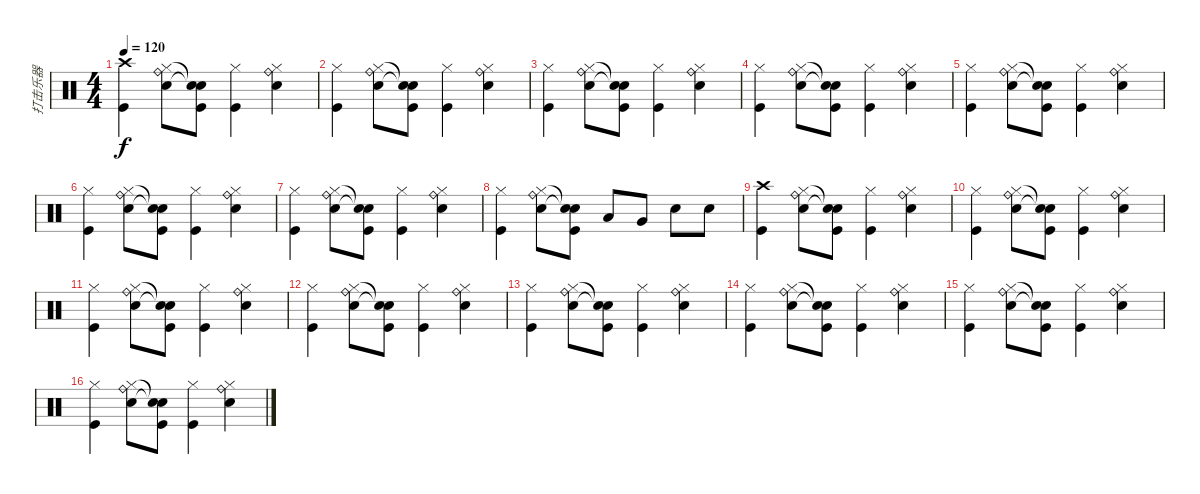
\track ("打击乐器" "打击乐器") {instrument percussion}
\staff {score}
\articulation defaults
\ts (4 4)
\tempo 120
\clef neutral
\ks c
("Crash high (hit)" "Kick (hit)").4{dy f} ("Hi-Hat (closed)" "Snare (hit) 2" "Ride (bell)").8 ("Snare (hit)"{t} "Snare (hit)"{t} "Kick (hit)").8 ("Hi-Hat (closed)" "Kick (hit)").4 ("Hi-Hat (closed)" "Snare (hit) 2" "Ride (bell)").4 |
("Hi-Hat (closed)" "Kick (hit)").4 ("Hi-Hat (closed)" "Snare (hit) 2" "Ride (bell)").8 ("Snare (hit)"{t} "Snare (hit)"{t} "Kick (hit)").8 ("Hi-Hat (closed)" "Kick (hit)").4 ("Hi-Hat (closed)" "Snare (hit) 2" "Ride (bell)").4 |
("Hi-Hat (closed)" "Kick (hit)").4 ("Hi-Hat (closed)" "Snare (hit) 2" "Ride (bell)").8 ("Snare (hit)"{t} "Snare (hit)"{t} "Kick (hit)").8 ("Hi-Hat (closed)" "Kick (hit)").4 ("Hi-Hat (closed)" "Snare (hit) 2" "Ride (bell)").4 |
("Hi-Hat (closed)" "Kick (hit)").4 ("Hi-Hat (closed)" "Snare (hit) 2" "Ride (bell)").8 ("Snare (hit)"{t} "Snare (hit)"{t} "Kick (hit)").8 ("Hi-Hat (closed)" "Kick (hit)").4 ("Hi-Hat (closed)" "Snare (hit) 2" "Ride (bell)").4 |
("Hi-Hat (closed)" "Kick (hit)").4 ("Hi-Hat (closed)" "Snare (hit) 2" "Ride (bell)").8 ("Snare (hit)"{t} "Snare (hit)"{t} "Kick (hit)").8 ("Hi-Hat (closed)" "Kick (hit)").4 ("Hi-Hat (closed)" "Snare (hit) 2" "Ride (bell)").4 |
("Hi-Hat (closed)" "Kick (hit)").4 ("Hi-Hat (closed)" "Snare (hit) 2" "Ride (bell)").8 ("Snare (hit)"{t} "Snare (hit)"{t} "Kick (hit)").8 ("Hi-Hat (closed)" "Kick (hit)").4 ("Hi-Hat (closed)" "Snare (hit) 2" "Ride (bell)").4 |
("Hi-Hat (closed)" "Kick (hit)").4 ("Hi-Hat (closed)" "Snare (hit) 2" "Ride (bell)").8 ("Snare (hit)"{t} "Snare (hit)"{t} "Kick (hit)").8 ("Hi-Hat (closed)" "Kick (hit)").4 ("Hi-Hat (closed)" "Snare (hit) 2" "Ride (bell)").4 |
("Hi-Hat (closed)" "Kick (hit)").4 ("Hi-Hat (closed)" "Snare (hit) 2" "Ride (bell)").8 ("Snare (hit)"{t} "Snare (hit)"{t} "Kick (hit)").8 "Low Tom (hit)".8 "Very Low Tom (hit)".8 "Snare (hit) 2".8 "Snare (hit) 2".8 |
("Crash high (hit)" "Kick (hit)").4 ("Hi-Hat (closed)" "Snare (hit) 2" "Ride (bell)").8 ("Snare (hit)"{t} "Snare (hit)"{t} "Kick (hit)").8 ("Hi-Hat (closed)" "Kick (hit)").4 ("Hi-Hat (closed)" "Snare (hit) 2" "Ride (bell)").4 |
("Hi-Hat (closed)" "Kick (hit)").4 ("Hi-Hat (closed)" "Snare (hit) 2" "Ride (bell)").8 ("Snare (hit)"{t} "Snare (hit)"{t} "Kick (hit)").8 ("Hi-Hat (closed)" "Kick (hit)").4 ("Hi-Hat (closed)" "Snare (hit) 2" "Ride (bell)").4 |
("Hi-Hat (closed)" "Kick (hit)").4 ("Hi-Hat (closed)" "Snare (hit) 2" "Ride (bell)").8 ("Snare (hit)"{t} "Snare (hit)"{t} "Kick (hit)").8 ("Hi-Hat (closed)" "Kick (hit)").4 ("Hi-Hat (closed)" "Snare (hit) 2" "Ride (bell)").4 |
("Hi-Hat (closed)" "Kick (hit)").4 ("Hi-Hat (closed)" "Snare (hit) 2" "Ride (bell)").8 ("Snare (hit)"{t} "Snare (hit)"{t} "Kick (hit)").8 ("Hi-Hat (closed)" "Kick (hit)").4 ("Hi-Hat (closed)" "Snare (hit) 2" "Ride (bell)").4 |
("Hi-Hat (closed)" "Kick (hit)").4 ("Hi-Hat (closed)" "Snare (hit) 2" "Ride (bell)").8 ("Snare (hit)"{t} "Snare (hit)"{t} "Kick (hit)").8 ("Hi-Hat (closed)" "Kick (hit)").4 ("Hi-Hat (closed)" "Snare (hit) 2" "Ride (bell)").4 |
("Hi-Hat (closed)" "Kick (hit)").4 ("Hi-Hat (closed)" "Snare (hit) 2" "Ride (bell)").8 ("Snare (hit)"{t} "Snare (hit)"{t} "Kick (hit)").8 ("Hi-Hat (closed)" "Kick (hit)").4 ("Hi-Hat (closed)" "Snare (hit) 2" "Ride (bell)").4 |
("Hi-Hat (closed)" "Kick (hit)").4 ("Hi-Hat (closed)" "Snare (hit) 2" "Ride (bell)").8 ("Snare (hit)"{t} "Snare (hit)"{t} "Kick (hit)").8 ("Hi-Hat (closed)" "Kick (hit)").4 ("Hi-Hat (closed)" "Snare (hit) 2" "Ride (bell)").4 |
("Hi-Hat (closed)" "Kick (hit)").4 ("Hi-Hat (closed)" "Snare (hit) 2" "Ride (bell)").8 ("Snare (hit)"{t} "Snare (hit)"{t} "Kick (hit)").8 ("Hi-Hat (closed)" "Kick (hit)").4 ("Hi-Hat (closed)" "Snare (hit) 2" "Ride (bell)").4
